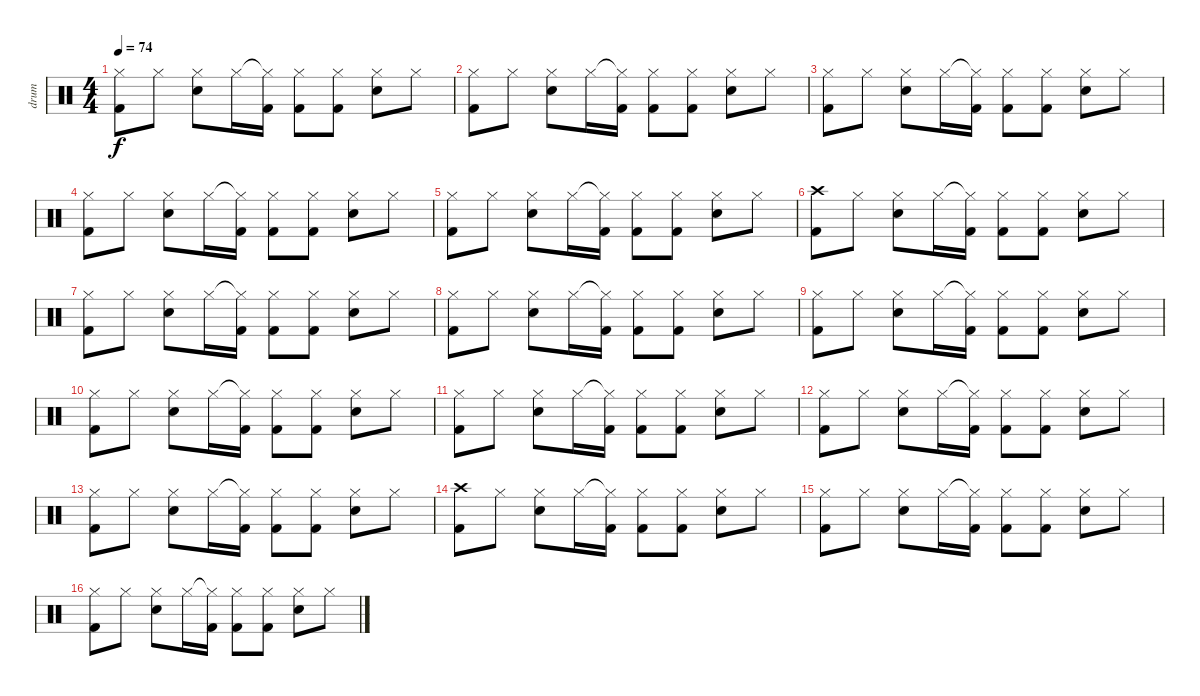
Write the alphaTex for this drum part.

\track ("drum" "drum") {instrument percussion}
\staff {score}
\articulation defaults
\ts (4 4)
\tempo 74
\clef neutral
\ks c
("Hi-Hat (closed)" "Kick (hit) 2").8{dy f} "Hi-Hat (closed)".8 ("Hi-Hat (closed)" "Electric Snare (hit)").8 "Hi-Hat (closed)".16 ("Hi-Hat (closed)"{t} "Kick (hit) 2").16 ("Hi-Hat (closed)" "Kick (hit) 2").8 ("Hi-Hat (closed)" "Kick (hit) 2").8 ("Hi-Hat (closed)" "Electric Snare (hit)").8 "Hi-Hat (closed)".8 |
("Hi-Hat (closed)" "Kick (hit) 2").8 "Hi-Hat (closed)".8 ("Hi-Hat (closed)" "Electric Snare (hit)").8 "Hi-Hat (closed)".16 ("Hi-Hat (closed)"{t} "Kick (hit) 2").16 ("Hi-Hat (closed)" "Kick (hit) 2").8 ("Hi-Hat (closed)" "Kick (hit) 2").8 ("Hi-Hat (closed)" "Electric Snare (hit)").8 "Hi-Hat (closed)".8 |
("Hi-Hat (closed)" "Kick (hit) 2").8 "Hi-Hat (closed)".8 ("Hi-Hat (closed)" "Electric Snare (hit)").8 "Hi-Hat (closed)".16 ("Hi-Hat (closed)"{t} "Kick (hit) 2").16 ("Hi-Hat (closed)" "Kick (hit) 2").8 ("Hi-Hat (closed)" "Kick (hit) 2").8 ("Hi-Hat (closed)" "Electric Snare (hit)").8 "Hi-Hat (closed)".8 |
("Hi-Hat (closed)" "Kick (hit) 2").8 "Hi-Hat (closed)".8 ("Hi-Hat (closed)" "Electric Snare (hit)").8 "Hi-Hat (closed)".16 ("Hi-Hat (closed)"{t} "Kick (hit) 2").16 ("Hi-Hat (closed)" "Kick (hit) 2").8 ("Hi-Hat (closed)" "Kick (hit) 2").8 ("Hi-Hat (closed)" "Electric Snare (hit)").8 "Hi-Hat (closed)".8 |
("Hi-Hat (closed)" "Kick (hit) 2").8 "Hi-Hat (closed)".8 ("Hi-Hat (closed)" "Electric Snare (hit)").8 "Hi-Hat (closed)".16 ("Hi-Hat (closed)"{t} "Kick (hit) 2").16 ("Hi-Hat (closed)" "Kick (hit) 2").8 ("Hi-Hat (closed)" "Kick (hit) 2").8 ("Hi-Hat (closed)" "Electric Snare (hit)").8 "Hi-Hat (closed)".8 |
("Crash high (hit)" "Kick (hit) 2").8 "Hi-Hat (closed)".8 ("Hi-Hat (closed)" "Electric Snare (hit)").8 "Hi-Hat (closed)".16 ("Hi-Hat (closed)"{t} "Kick (hit) 2").16 ("Hi-Hat (closed)" "Kick (hit) 2").8 ("Hi-Hat (closed)" "Kick (hit) 2").8 ("Hi-Hat (closed)" "Electric Snare (hit)").8 "Hi-Hat (closed)".8 |
("Hi-Hat (closed)" "Kick (hit) 2").8 "Hi-Hat (closed)".8 ("Hi-Hat (closed)" "Electric Snare (hit)").8 "Hi-Hat (closed)".16 ("Hi-Hat (closed)"{t} "Kick (hit) 2").16 ("Hi-Hat (closed)" "Kick (hit) 2").8 ("Hi-Hat (closed)" "Kick (hit) 2").8 ("Hi-Hat (closed)" "Electric Snare (hit)").8 "Hi-Hat (closed)".8 |
("Hi-Hat (closed)" "Kick (hit) 2").8 "Hi-Hat (closed)".8 ("Hi-Hat (closed)" "Electric Snare (hit)").8 "Hi-Hat (closed)".16 ("Hi-Hat (closed)"{t} "Kick (hit) 2").16 ("Hi-Hat (closed)" "Kick (hit) 2").8 ("Hi-Hat (closed)" "Kick (hit) 2").8 ("Hi-Hat (closed)" "Electric Snare (hit)").8 "Hi-Hat (closed)".8 |
("Hi-Hat (closed)" "Kick (hit) 2").8 "Hi-Hat (closed)".8 ("Hi-Hat (closed)" "Electric Snare (hit)").8 "Hi-Hat (closed)".16 ("Hi-Hat (closed)"{t} "Kick (hit) 2").16 ("Hi-Hat (closed)" "Kick (hit) 2").8 ("Hi-Hat (closed)" "Kick (hit) 2").8 ("Hi-Hat (closed)" "Electric Snare (hit)").8 "Hi-Hat (closed)".8 |
("Hi-Hat (closed)" "Kick (hit) 2").8 "Hi-Hat (closed)".8 ("Hi-Hat (closed)" "Electric Snare (hit)").8 "Hi-Hat (closed)".16 ("Hi-Hat (closed)"{t} "Kick (hit) 2").16 ("Hi-Hat (closed)" "Kick (hit) 2").8 ("Hi-Hat (closed)" "Kick (hit) 2").8 ("Hi-Hat (closed)" "Electric Snare (hit)").8 "Hi-Hat (closed)".8 |
("Hi-Hat (closed)" "Kick (hit) 2").8 "Hi-Hat (closed)".8 ("Hi-Hat (closed)" "Electric Snare (hit)").8 "Hi-Hat (closed)".16 ("Hi-Hat (closed)"{t} "Kick (hit) 2").16 ("Hi-Hat (closed)" "Kick (hit) 2").8 ("Hi-Hat (closed)" "Kick (hit) 2").8 ("Hi-Hat (closed)" "Electric Snare (hit)").8 "Hi-Hat (closed)".8 |
("Hi-Hat (closed)" "Kick (hit) 2").8 "Hi-Hat (closed)".8 ("Hi-Hat (closed)" "Electric Snare (hit)").8 "Hi-Hat (closed)".16 ("Hi-Hat (closed)"{t} "Kick (hit) 2").16 ("Hi-Hat (closed)" "Kick (hit) 2").8 ("Hi-Hat (closed)" "Kick (hit) 2").8 ("Hi-Hat (closed)" "Electric Snare (hit)").8 "Hi-Hat (closed)".8 |
("Hi-Hat (closed)" "Kick (hit) 2").8 "Hi-Hat (closed)".8 ("Hi-Hat (closed)" "Electric Snare (hit)").8 "Hi-Hat (closed)".16 ("Hi-Hat (closed)"{t} "Kick (hit) 2").16 ("Hi-Hat (closed)" "Kick (hit) 2").8 ("Hi-Hat (closed)" "Kick (hit) 2").8 ("Hi-Hat (closed)" "Electric Snare (hit)").8 "Hi-Hat (closed)".8 |
("Crash high (hit)" "Kick (hit) 2").8 "Hi-Hat (closed)".8 ("Hi-Hat (closed)" "Electric Snare (hit)").8 "Hi-Hat (closed)".16 ("Hi-Hat (closed)"{t} "Kick (hit) 2").16 ("Hi-Hat (closed)" "Kick (hit) 2").8 ("Hi-Hat (closed)" "Kick (hit) 2").8 ("Hi-Hat (closed)" "Electric Snare (hit)").8 "Hi-Hat (closed)".8 |
("Hi-Hat (closed)" "Kick (hit) 2").8 "Hi-Hat (closed)".8 ("Hi-Hat (closed)" "Electric Snare (hit)").8 "Hi-Hat (closed)".16 ("Hi-Hat (closed)"{t} "Kick (hit) 2").16 ("Hi-Hat (closed)" "Kick (hit) 2").8 ("Hi-Hat (closed)" "Kick (hit) 2").8 ("Hi-Hat (closed)" "Electric Snare (hit)").8 "Hi-Hat (closed)".8 |
("Hi-Hat (closed)" "Kick (hit) 2").8 "Hi-Hat (closed)".8 ("Hi-Hat (closed)" "Electric Snare (hit)").8 "Hi-Hat (closed)".16 ("Hi-Hat (closed)"{t} "Kick (hit) 2").16 ("Hi-Hat (closed)" "Kick (hit) 2").8 ("Hi-Hat (closed)" "Kick (hit) 2").8 ("Hi-Hat (closed)" "Electric Snare (hit)").8 "Hi-Hat (closed)".8
